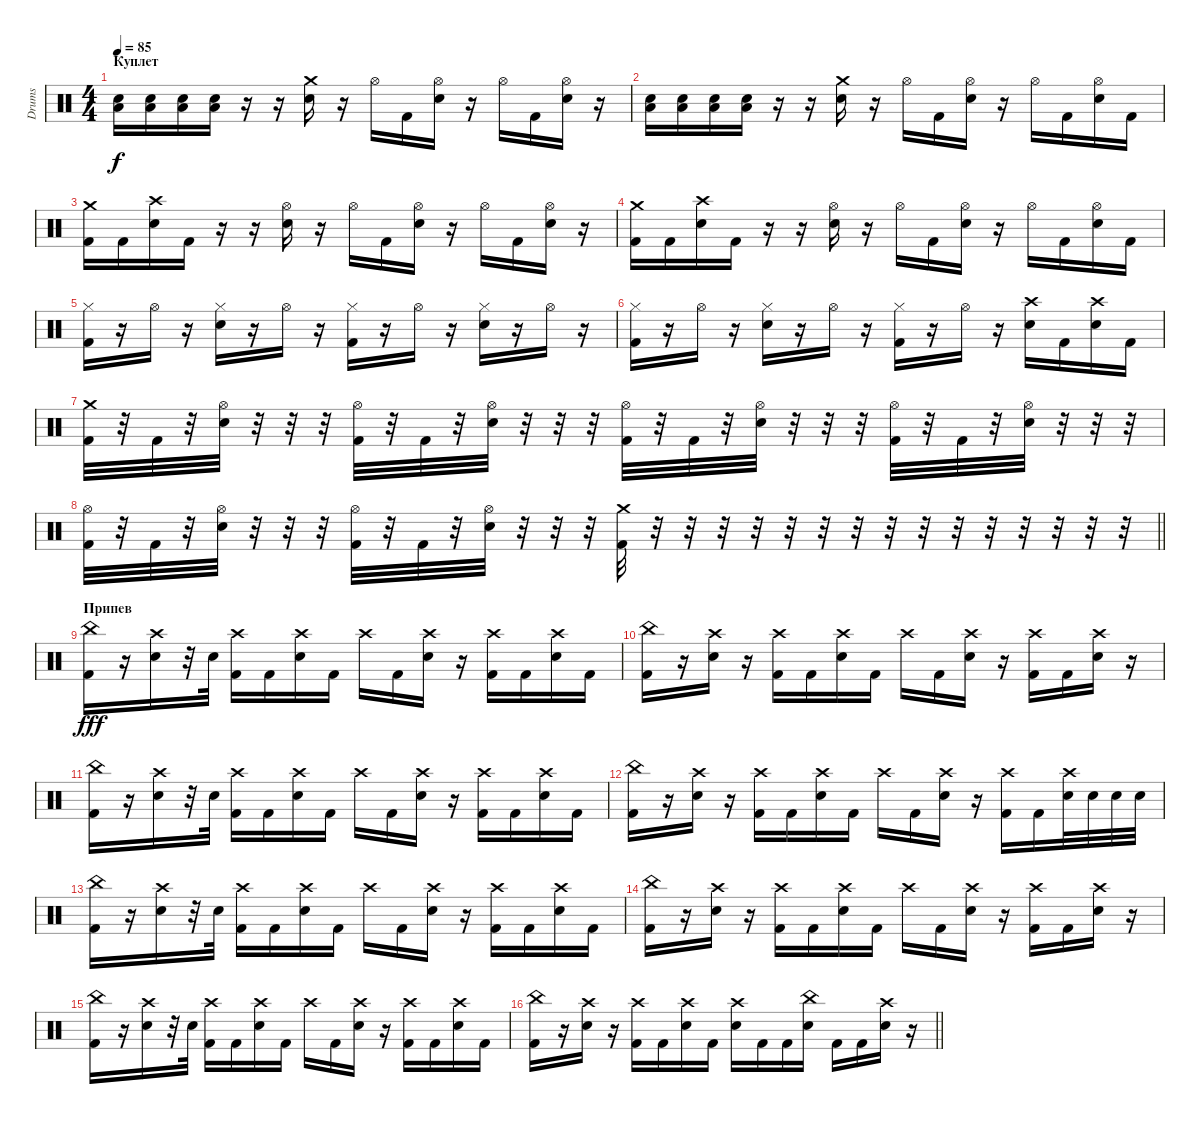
\track ("Drums" "Drums") {instrument percussion}
\staff {score}
\articulation defaults
\ts (4 4)
\section ("" "Куплет")
\tempo 85
\clef neutral
\ks c
("Low Floor Tom (hit)" "Electric Snare (hit)").16{dy f} ("Low Floor Tom (hit)" "Electric Snare (hit)").16 ("Low Floor Tom (hit)" "Electric Snare (hit)").16 ("Low Floor Tom (hit)" "Electric Snare (hit)").16 r.16 r.16 ("Crash medium (hit)" "Electric Snare (hit)").16 r.16 "Hi-Hat (open)".16 "Kick (hit) 2".16 ("Hi-Hat (open)" "Electric Snare (hit)").16 r.16 "Hi-Hat (open)".16 "Kick (hit) 2".16 ("Hi-Hat (open)" "Electric Snare (hit)").16 r.16 |
("Low Floor Tom (hit)" "Electric Snare (hit)").16 ("Low Floor Tom (hit)" "Electric Snare (hit)").16 ("Low Floor Tom (hit)" "Electric Snare (hit)").16 ("Low Floor Tom (hit)" "Electric Snare (hit)").16 r.16 r.16 ("Crash medium (hit)" "Electric Snare (hit)").16 r.16 "Hi-Hat (open)".16 "Kick (hit) 2".16 ("Hi-Hat (open)" "Electric Snare (hit)").16 r.16 "Hi-Hat (open)".16 "Kick (hit) 2".16 ("Hi-Hat (open)" "Electric Snare (hit)").16 "Kick (hit) 2".16 |
("Crash medium (hit)" "Kick (hit) 2").16 "Kick (hit) 2".16 ("Crash high (hit)" "Electric Snare (hit)").16 "Kick (hit) 2".16 r.16 r.16 ("Hi-Hat (open)" "Electric Snare (hit)").16 r.16 "Hi-Hat (open)".16 "Kick (hit) 2".16 ("Hi-Hat (open)" "Electric Snare (hit)").16 r.16 "Hi-Hat (open)".16 "Kick (hit) 2".16 ("Hi-Hat (open)" "Electric Snare (hit)").16 r.16 |
("Crash medium (hit)" "Kick (hit) 2").16 "Kick (hit) 2".16 ("Crash high (hit)" "Electric Snare (hit)").16 "Kick (hit) 2".16 r.16 r.16 ("Hi-Hat (open)" "Electric Snare (hit)").16 r.16 "Hi-Hat (open)".16 "Kick (hit) 2".16 ("Hi-Hat (open)" "Electric Snare (hit)").16 r.16 "Hi-Hat (open)".16 "Kick (hit) 2".16 ("Hi-Hat (open)" "Electric Snare (hit)").16 "Kick (hit) 2".16 |
("Hi-Hat (closed)" "Kick (hit) 2").16 r.16 "Hi-Hat (open)".16 r.16 ("Hi-Hat (closed)" "Electric Snare (hit)").16 r.16 "Hi-Hat (open)".16 r.16 ("Hi-Hat (closed)" "Kick (hit) 2").16 r.16 "Hi-Hat (open)".16 r.16 ("Hi-Hat (closed)" "Electric Snare (hit)").16 r.16 "Hi-Hat (open)".16 r.16 |
("Hi-Hat (closed)" "Kick (hit) 2").16 r.16 "Hi-Hat (open)".16 r.16 ("Hi-Hat (closed)" "Electric Snare (hit)").16 r.16 "Hi-Hat (open)".16 r.16 ("Hi-Hat (closed)" "Kick (hit) 2").16 r.16 "Hi-Hat (open)".16 r.16 ("Crash high (hit)" "Electric Snare (hit)").16 "Kick (hit) 2".16 ("Crash high (hit)" "Electric Snare (hit)").16 "Kick (hit) 2".16 |
("Crash medium (hit)" "Kick (hit) 2").32 r.32 "Kick (hit) 2".32 r.32 ("Hi-Hat (open)" "Electric Snare (hit)").32 r.32 r.32 r.32 ("Hi-Hat (open)" "Kick (hit) 2").32 r.32 "Kick (hit) 2".32 r.32 ("Hi-Hat (open)" "Electric Snare (hit)").32 r.32 r.32 r.32 ("Hi-Hat (open)" "Kick (hit) 2").32 r.32 "Kick (hit) 2".32 r.32 ("Hi-Hat (open)" "Electric Snare (hit)").32 r.32 r.32 r.32 ("Hi-Hat (open)" "Kick (hit) 2").32 r.32 "Kick (hit) 2".32 r.32 ("Hi-Hat (open)" "Electric Snare (hit)").32 r.32 r.32 r.32 |
\barLineRight lightlight
("Hi-Hat (open)" "Kick (hit) 2").32 r.32 "Kick (hit) 2".32 r.32 ("Hi-Hat (open)" "Electric Snare (hit)").32 r.32 r.32 r.32 ("Hi-Hat (open)" "Kick (hit) 2").32 r.32 "Kick (hit) 2".32 r.32 ("Hi-Hat (open)" "Electric Snare (hit)").32 r.32 r.32 r.32 ("Crash medium (hit)" "Kick (hit) 2").32 r.32 r.32 r.32 r.32 r.32 r.32 r.32 r.32 r.32 r.32 r.32 r.32 r.32 r.32 r.32 |
\section ("" "Припев")
("Kick (hit) 2" "China (hit)").16{dy fff} r.16 ("Electric Snare (hit)" "Crash high (hit)").16 r.32 "Electric Snare (hit)".32 ("Kick (hit) 2" "Crash high (hit)").16 "Kick (hit) 2".16 ("Electric Snare (hit)" "Crash high (hit)").16 "Kick (hit) 2".16 "Crash high (hit)".16 "Kick (hit) 2".16 ("Electric Snare (hit)" "Crash high (hit)").16 r.16 ("Kick (hit) 2" "Crash high (hit)").16 "Kick (hit) 2".16 ("Electric Snare (hit)" "Crash high (hit)").16 "Kick (hit) 2".16 |
("Kick (hit) 2" "China (hit)").16 r.16 ("Electric Snare (hit)" "Crash high (hit)").16 r.16 ("Kick (hit) 2" "Crash high (hit)").16 "Kick (hit) 2".16 ("Electric Snare (hit)" "Crash high (hit)").16 "Kick (hit) 2".16 "Crash high (hit)".16 "Kick (hit) 2".16 ("Electric Snare (hit)" "Crash high (hit)").16 r.16 ("Kick (hit) 2" "Crash high (hit)").16 "Kick (hit) 2".16 ("Electric Snare (hit)" "Crash high (hit)").16 r.16 |
("Kick (hit) 2" "China (hit)").16 r.16 ("Electric Snare (hit)" "Crash high (hit)").16 r.32 "Electric Snare (hit)".32 ("Kick (hit) 2" "Crash high (hit)").16 "Kick (hit) 2".16 ("Electric Snare (hit)" "Crash high (hit)").16 "Kick (hit) 2".16 "Crash high (hit)".16 "Kick (hit) 2".16 ("Electric Snare (hit)" "Crash high (hit)").16 r.16 ("Kick (hit) 2" "Crash high (hit)").16 "Kick (hit) 2".16 ("Electric Snare (hit)" "Crash high (hit)").16 "Kick (hit) 2".16 |
("Kick (hit) 2" "China (hit)").16 r.16 ("Electric Snare (hit)" "Crash high (hit)").16 r.16 ("Kick (hit) 2" "Crash high (hit)").16 "Kick (hit) 2".16 ("Electric Snare (hit)" "Crash high (hit)").16 "Kick (hit) 2".16 "Crash high (hit)".16 "Kick (hit) 2".16 ("Electric Snare (hit)" "Crash high (hit)").16 r.16 ("Kick (hit) 2" "Crash high (hit)").16 "Kick (hit) 2".16 ("Electric Snare (hit)" "Crash high (hit)").32 "Electric Snare (hit)".32 "Electric Snare (hit)".32 "Electric Snare (hit)".32 |
("Kick (hit) 2" "China (hit)").16 r.16 ("Electric Snare (hit)" "Crash high (hit)").16 r.32 "Electric Snare (hit)".32 ("Kick (hit) 2" "Crash high (hit)").16 "Kick (hit) 2".16 ("Electric Snare (hit)" "Crash high (hit)").16 "Kick (hit) 2".16 "Crash high (hit)".16 "Kick (hit) 2".16 ("Electric Snare (hit)" "Crash high (hit)").16 r.16 ("Kick (hit) 2" "Crash high (hit)").16 "Kick (hit) 2".16 ("Electric Snare (hit)" "Crash high (hit)").16 "Kick (hit) 2".16 |
("Kick (hit) 2" "China (hit)").16 r.16 ("Electric Snare (hit)" "Crash high (hit)").16 r.16 ("Kick (hit) 2" "Crash high (hit)").16 "Kick (hit) 2".16 ("Electric Snare (hit)" "Crash high (hit)").16 "Kick (hit) 2".16 "Crash high (hit)".16 "Kick (hit) 2".16 ("Electric Snare (hit)" "Crash high (hit)").16 r.16 ("Kick (hit) 2" "Crash high (hit)").16 "Kick (hit) 2".16 ("Electric Snare (hit)" "Crash high (hit)").16 r.16 |
("Kick (hit) 2" "China (hit)").16 r.16 ("Electric Snare (hit)" "Crash high (hit)").16 r.32 "Electric Snare (hit)".32 ("Kick (hit) 2" "Crash high (hit)").16 "Kick (hit) 2".16 ("Electric Snare (hit)" "Crash high (hit)").16 "Kick (hit) 2".16 "Crash high (hit)".16 "Kick (hit) 2".16 ("Electric Snare (hit)" "Crash high (hit)").16 r.16 ("Kick (hit) 2" "Crash high (hit)").16 "Kick (hit) 2".16 ("Electric Snare (hit)" "Crash high (hit)").16 "Kick (hit) 2".16 |
\barLineRight lightlight
("Kick (hit) 2" "China (hit)").16 r.16 ("Electric Snare (hit)" "Crash high (hit)").16 r.16 ("Kick (hit) 2" "Crash high (hit)").16 "Kick (hit) 2".16 ("Electric Snare (hit)" "Crash high (hit)").16 "Kick (hit) 2".16 ("Electric Snare (hit)" "Crash high (hit)").16 "Kick (hit) 2".16 "Kick (hit) 2".16 ("Electric Snare (hit)" "China (hit)").16 "Kick (hit) 2".16 "Kick (hit) 2".16 ("Electric Snare (hit)" "Crash high (hit)").16 r.16
